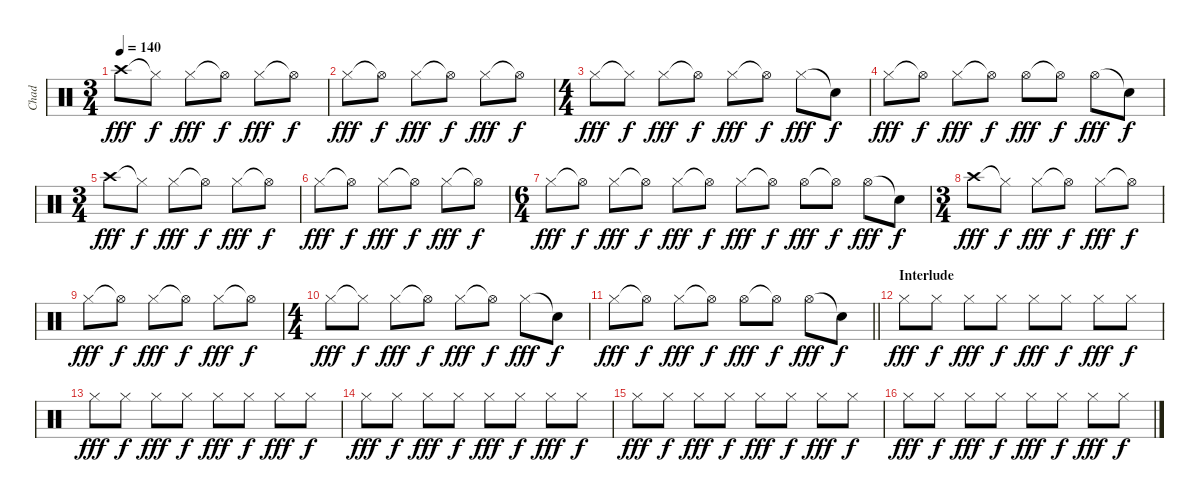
\track ("Chad" "Chad") {instrument percussion}
\staff {score}
\articulation defaults
\ts (3 4)
\tempo 140
\clef neutral
\ks c "Crash high (hit)".8{dy fff} "Hi-Hat (closed)"{t}.8{dy f} "Hi-Hat (closed)".8{dy fff} "Hi-Hat (open)"{t}.8{dy f} "Hi-Hat (closed)".8{dy fff} "Hi-Hat (open)"{t}.8{dy f}
|
"Hi-Hat (closed)".8{dy fff} "Hi-Hat (open)"{t}.8{dy f} "Hi-Hat (closed)".8{dy fff} "Hi-Hat (open)"{t}.8{dy f} "Hi-Hat (closed)".8{dy fff} "Hi-Hat (open)"{t}.8{dy f} |
\ts (4 4)
"Hi-Hat (closed)".8{dy fff} "Hi-Hat (closed)"{t}.8{dy f} "Hi-Hat (closed)".8{dy fff} "Hi-Hat (open)"{t}.8{dy f} "Hi-Hat (closed)".8{dy fff} "Hi-Hat (open)"{t}.8{dy f} "Hi-Hat (closed)".8{dy fff} "Snare (hit)"{t}.8{dy f} |
"Hi-Hat (closed)".8{dy fff} "Hi-Hat (open)"{t}.8{dy f} "Hi-Hat (closed)".8{dy fff} "Hi-Hat (open)"{t}.8{dy f} "Hi-Hat (open)".8{dy fff} "Hi-Hat (open)"{t}.8{dy f} "Hi-Hat (open)".8{dy fff} "Snare (hit)"{t}.8{dy f} |
\ts (3 4)
"Crash high (hit)".8{dy fff} "Hi-Hat (closed)"{t}.8{dy f} "Hi-Hat (closed)".8{dy fff} "Hi-Hat (open)"{t}.8{dy f} "Hi-Hat (closed)".8{dy fff} "Hi-Hat (open)"{t}.8{dy f} |
"Hi-Hat (closed)".8{dy fff} "Hi-Hat (open)"{t}.8{dy f} "Hi-Hat (closed)".8{dy fff} "Hi-Hat (open)"{t}.8{dy f} "Hi-Hat (closed)".8{dy fff} "Hi-Hat (open)"{t}.8{dy f} |
\ts (6 4)
"Hi-Hat (closed)".8{dy fff} "Hi-Hat (open)"{t}.8{dy f} "Hi-Hat (closed)".8{dy fff} "Hi-Hat (open)"{t}.8{dy f} "Hi-Hat (closed)".8{dy fff} "Hi-Hat (open)"{t}.8{dy f} "Hi-Hat (closed)".8{dy fff} "Hi-Hat (open)"{t}.8{dy f} "Hi-Hat (open)".8{dy fff} "Hi-Hat (open)"{t}.8{dy f} "Hi-Hat (open)".8{dy fff} "Snare (hit)"{t}.8{dy f} |
\ts (3 4)
"Crash high (hit)".8{dy fff} "Hi-Hat (closed)"{t}.8{dy f} "Hi-Hat (closed)".8{dy fff} "Hi-Hat (open)"{t}.8{dy f} "Hi-Hat (closed)".8{dy fff} "Hi-Hat (open)"{t}.8{dy f} |
"Hi-Hat (closed)".8{dy fff} "Hi-Hat (open)"{t}.8{dy f} "Hi-Hat (closed)".8{dy fff} "Hi-Hat (open)"{t}.8{dy f} "Hi-Hat (closed)".8{dy fff} "Hi-Hat (open)"{t}.8{dy f} |
\ts (4 4)
"Hi-Hat (closed)".8{dy fff} "Hi-Hat (closed)"{t}.8{dy f} "Hi-Hat (closed)".8{dy fff} "Hi-Hat (open)"{t}.8{dy f} "Hi-Hat (closed)".8{dy fff} "Hi-Hat (open)"{t}.8{dy f} "Hi-Hat (closed)".8{dy fff} "Snare (hit)"{t}.8{dy f} |
\barLineRight lightlight "Hi-Hat (closed)".8{dy fff} "Hi-Hat (open)"{t}.8{dy f} "Hi-Hat (closed)".8{dy fff} "Hi-Hat (open)"{t}.8{dy f} "Hi-Hat (open)".8{dy fff} "Hi-Hat (open)"{t}.8{dy f} "Hi-Hat (open)".8{dy fff} "Snare (hit)"{t}.8{dy f}
|
\section ("" "Interlude")
"Hi-Hat (closed)".8{dy fff} "Hi-Hat (closed)".8{dy f} "Hi-Hat (closed)".8{dy fff} "Hi-Hat (closed)".8{dy f} "Hi-Hat (closed)".8{dy fff} "Hi-Hat (closed)".8{dy f} "Hi-Hat (closed)".8{dy fff} "Hi-Hat (closed)".8{dy f} |
"Hi-Hat (closed)".8{dy fff} "Hi-Hat (closed)".8{dy f} "Hi-Hat (closed)".8{dy fff} "Hi-Hat (closed)".8{dy f} "Hi-Hat (closed)".8{dy fff} "Hi-Hat (closed)".8{dy f} "Hi-Hat (closed)".8{dy fff} "Hi-Hat (closed)".8{dy f} |
"Hi-Hat (closed)".8{dy fff} "Hi-Hat (closed)".8{dy f} "Hi-Hat (closed)".8{dy fff} "Hi-Hat (closed)".8{dy f} "Hi-Hat (closed)".8{dy fff} "Hi-Hat (closed)".8{dy f} "Hi-Hat (closed)".8{dy fff} "Hi-Hat (closed)".8{dy f} |
"Hi-Hat (closed)".8{dy fff} "Hi-Hat (closed)".8{dy f} "Hi-Hat (closed)".8{dy fff} "Hi-Hat (closed)".8{dy f} "Hi-Hat (closed)".8{dy fff} "Hi-Hat (closed)".8{dy f} "Hi-Hat (closed)".8{dy fff} "Hi-Hat (closed)".8{dy f} |
"Hi-Hat (closed)".8{dy fff} "Hi-Hat (closed)".8{dy f} "Hi-Hat (closed)".8{dy fff} "Hi-Hat (closed)".8{dy f} "Hi-Hat (closed)".8{dy fff} "Hi-Hat (closed)".8{dy f} "Hi-Hat (closed)".8{dy fff} "Hi-Hat (closed)".8{dy f}
